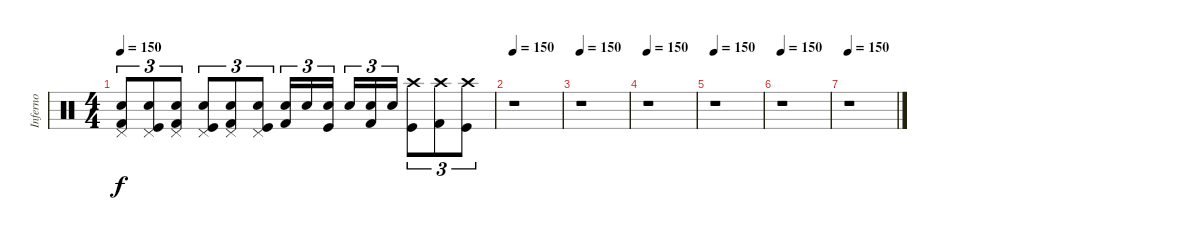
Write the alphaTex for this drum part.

\track ("Inferno" "Inferno") {instrument percussion}
\staff {score}
\articulation defaults
\ts (4 4)
\tempo 150
\clef neutral
\ks c
("Pedal Hi-Hat (hit)" "Electric Snare (hit)" "Kick (hit) 2").8{tu (3 2) dy f} ("Pedal Hi-Hat (hit)" "Electric Snare (hit)" "Kick (hit)").8{tu (3 2)} ("Pedal Hi-Hat (hit)" "Electric Snare (hit)" "Kick (hit) 2").8{tu (3 2)} ("Pedal Hi-Hat (hit)" "Electric Snare (hit)" "Kick (hit)").8{tu (3 2)} ("Pedal Hi-Hat (hit)" "Electric Snare (hit)" "Kick (hit) 2").8{tu (3 2)} ("Pedal Hi-Hat (hit)" "Electric Snare (hit)" "Kick (hit)").8{tu (3 2)} ("Electric Snare (hit)" "Kick (hit) 2").16{tu (3 2)} "Electric Snare (hit)".16{tu (3 2)} ("Electric Snare (hit)" "Kick (hit)").16{tu (3 2)} "Electric Snare (hit)".16{tu (3 2)} ("Electric Snare (hit)" "Kick (hit) 2").16{tu (3 2)} "Electric Snare (hit)".16{tu (3 2)} ("Crash high (hit)" "Kick (hit)").8{tu (3 2)} ("Crash high (hit)" "Kick (hit) 2").8{tu (3 2)} ("Crash high (hit)" "Kick (hit)").8{tu (3 2)} |
\tempo 150
r.1 |
\tempo 150
r.1 |
\tempo 150
r.1 |
\tempo 150
r.1 |
\tempo 150
r.1 |
\tempo 150
r.1
